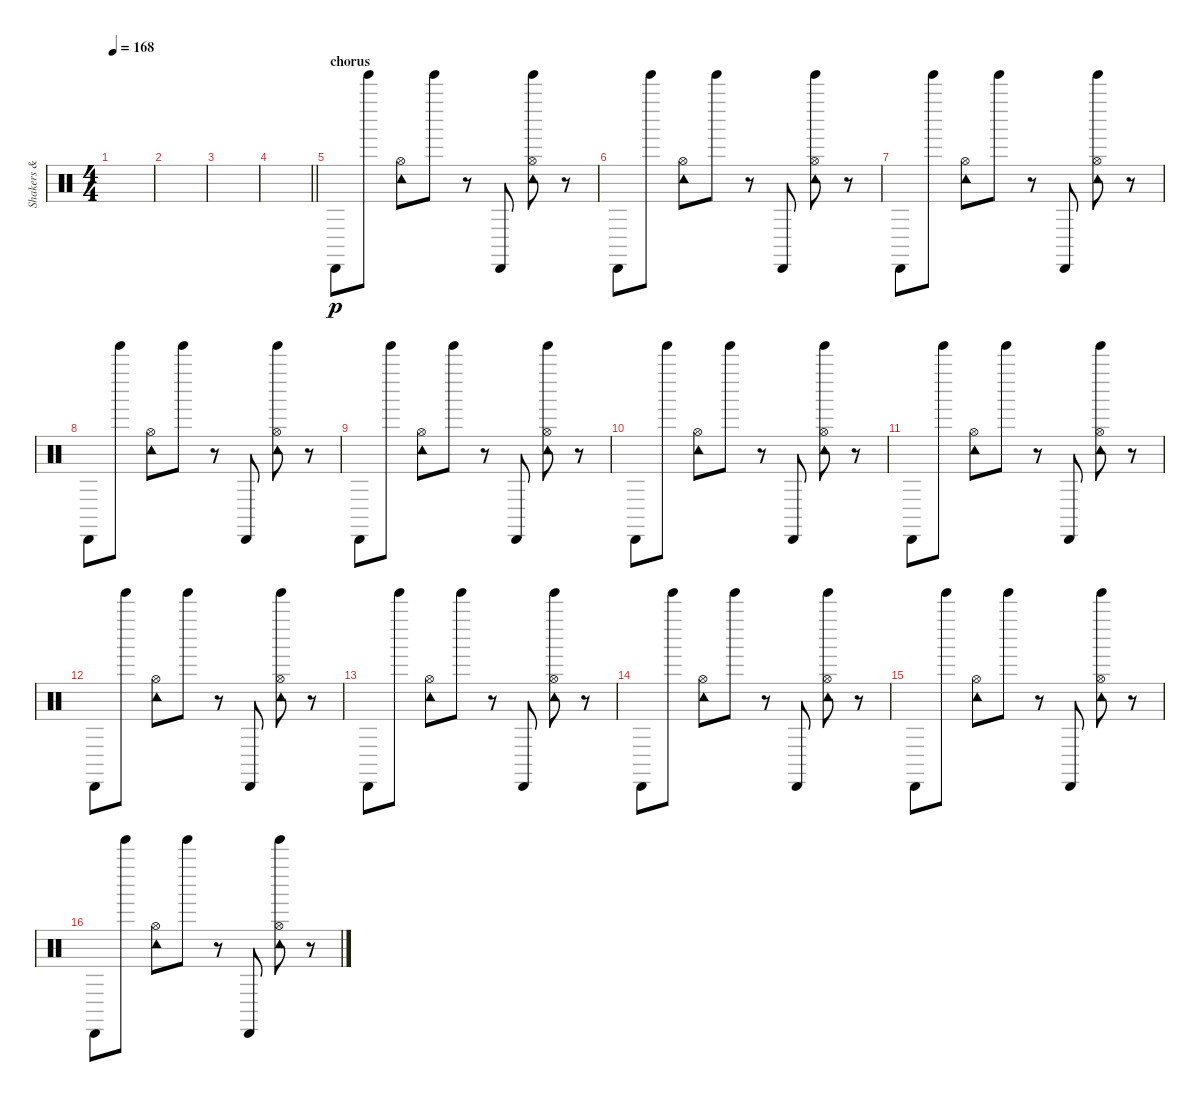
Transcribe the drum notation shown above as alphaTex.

\track ("Shakers & Effects" "Shakers & ") {instrument percussion}
\staff {score}
\articulation defaults
\ts (4 4)
\tempo 168
\clef neutral
\ks c
|
|
|
\barLineRight lightlight
|
\section ("" "chorus")
"Cabasa (hit)".8{dy p} "Tinkle Bell (hit)".8 ("Tambourine (hit)" "Hi-Hat (open)").8 "Tinkle Bell (hit)".8 r.8 "Cabasa (hit)".8 ("Tambourine (hit)" "Tinkle Bell (hit)" "Hi-Hat (open)").8 r.8 |
"Cabasa (hit)".8 "Tinkle Bell (hit)".8 ("Tambourine (hit)" "Hi-Hat (open)").8 "Tinkle Bell (hit)".8 r.8 "Cabasa (hit)".8 ("Tambourine (hit)" "Tinkle Bell (hit)" "Hi-Hat (open)").8 r.8 |
"Cabasa (hit)".8 "Tinkle Bell (hit)".8 ("Tambourine (hit)" "Hi-Hat (open)").8 "Tinkle Bell (hit)".8 r.8 "Cabasa (hit)".8 ("Tambourine (hit)" "Tinkle Bell (hit)" "Hi-Hat (open)").8 r.8 |
"Cabasa (hit)".8 "Tinkle Bell (hit)".8 ("Tambourine (hit)" "Hi-Hat (open)").8 "Tinkle Bell (hit)".8 r.8 "Cabasa (hit)".8 ("Tambourine (hit)" "Tinkle Bell (hit)" "Hi-Hat (open)").8 r.8 |
"Cabasa (hit)".8 "Tinkle Bell (hit)".8 ("Tambourine (hit)" "Hi-Hat (open)").8 "Tinkle Bell (hit)".8 r.8 "Cabasa (hit)".8 ("Tambourine (hit)" "Tinkle Bell (hit)" "Hi-Hat (open)").8 r.8 |
"Cabasa (hit)".8 "Tinkle Bell (hit)".8 ("Tambourine (hit)" "Hi-Hat (open)").8 "Tinkle Bell (hit)".8 r.8 "Cabasa (hit)".8 ("Tambourine (hit)" "Tinkle Bell (hit)" "Hi-Hat (open)").8 r.8 |
"Cabasa (hit)".8 "Tinkle Bell (hit)".8 ("Tambourine (hit)" "Hi-Hat (open)").8 "Tinkle Bell (hit)".8 r.8 "Cabasa (hit)".8 ("Tambourine (hit)" "Tinkle Bell (hit)" "Hi-Hat (open)").8 r.8 |
"Cabasa (hit)".8 "Tinkle Bell (hit)".8 ("Tambourine (hit)" "Hi-Hat (open)").8 "Tinkle Bell (hit)".8 r.8 "Cabasa (hit)".8 ("Tambourine (hit)" "Tinkle Bell (hit)" "Hi-Hat (open)").8 r.8 |
"Cabasa (hit)".8 "Tinkle Bell (hit)".8 ("Tambourine (hit)" "Hi-Hat (open)").8 "Tinkle Bell (hit)".8 r.8 "Cabasa (hit)".8 ("Tambourine (hit)" "Tinkle Bell (hit)" "Hi-Hat (open)").8 r.8 |
"Cabasa (hit)".8 "Tinkle Bell (hit)".8 ("Tambourine (hit)" "Hi-Hat (open)").8 "Tinkle Bell (hit)".8 r.8 "Cabasa (hit)".8 ("Tambourine (hit)" "Tinkle Bell (hit)" "Hi-Hat (open)").8 r.8 |
"Cabasa (hit)".8 "Tinkle Bell (hit)".8 ("Tambourine (hit)" "Hi-Hat (open)").8 "Tinkle Bell (hit)".8 r.8 "Cabasa (hit)".8 ("Tambourine (hit)" "Tinkle Bell (hit)" "Hi-Hat (open)").8 r.8 |
"Cabasa (hit)".8 "Tinkle Bell (hit)".8 ("Tambourine (hit)" "Hi-Hat (open)").8 "Tinkle Bell (hit)".8 r.8 "Cabasa (hit)".8 ("Tambourine (hit)" "Tinkle Bell (hit)" "Hi-Hat (open)").8 r.8
